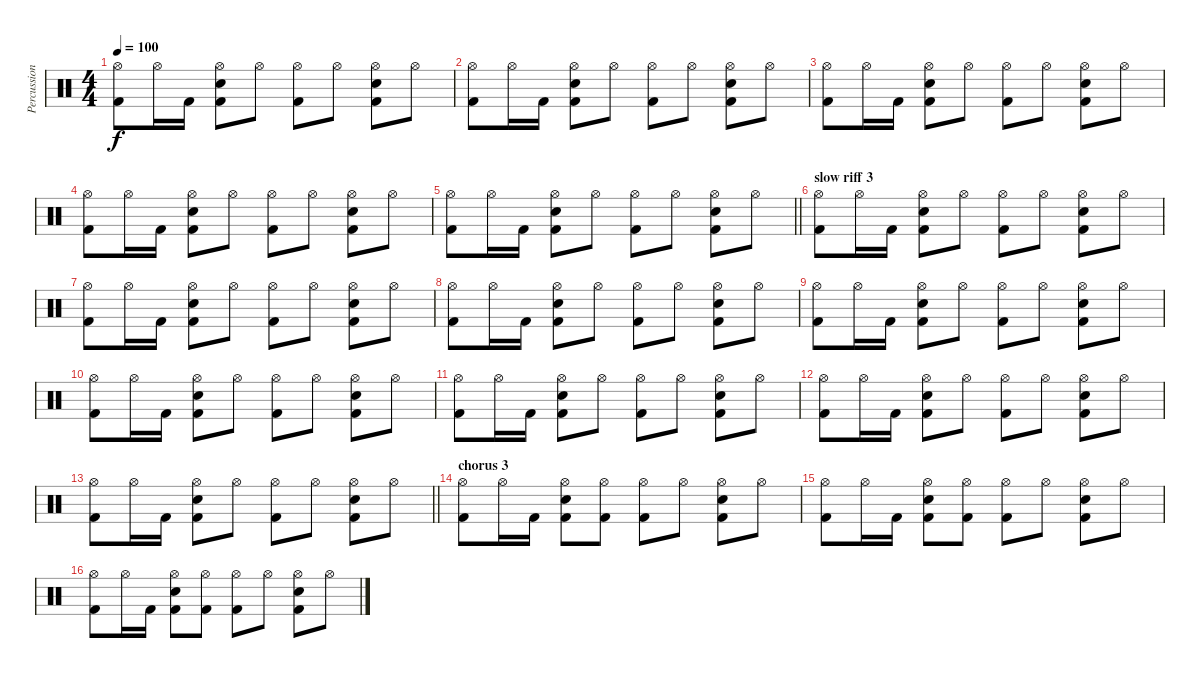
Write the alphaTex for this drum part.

\track ("Percussion" "Percussion") {instrument percussion}
\staff {score}
\articulation defaults
\ts (4 4)
\tempo 100
\clef neutral
\ks c
("Hi-Hat (open)" "Kick (hit) 2").8{dy f} "Hi-Hat (open)".16 "Kick (hit) 2".16 ("Hi-Hat (open)" "Electric Snare (hit)" "Kick (hit) 2").8 "Hi-Hat (open)".8 ("Hi-Hat (open)" "Kick (hit) 2").8 "Hi-Hat (open)".8 ("Hi-Hat (open)" "Electric Snare (hit)" "Kick (hit) 2").8 "Hi-Hat (open)".8 |
("Hi-Hat (open)" "Kick (hit) 2").8 "Hi-Hat (open)".16 "Kick (hit) 2".16 ("Hi-Hat (open)" "Electric Snare (hit)" "Kick (hit) 2").8 "Hi-Hat (open)".8 ("Hi-Hat (open)" "Kick (hit) 2").8 "Hi-Hat (open)".8 ("Hi-Hat (open)" "Electric Snare (hit)" "Kick (hit) 2").8 "Hi-Hat (open)".8 |
("Hi-Hat (open)" "Kick (hit) 2").8 "Hi-Hat (open)".16 "Kick (hit) 2".16 ("Hi-Hat (open)" "Electric Snare (hit)" "Kick (hit) 2").8 "Hi-Hat (open)".8 ("Hi-Hat (open)" "Kick (hit) 2").8 "Hi-Hat (open)".8 ("Hi-Hat (open)" "Electric Snare (hit)" "Kick (hit) 2").8 "Hi-Hat (open)".8 |
("Hi-Hat (open)" "Kick (hit) 2").8 "Hi-Hat (open)".16 "Kick (hit) 2".16 ("Hi-Hat (open)" "Electric Snare (hit)" "Kick (hit) 2").8 "Hi-Hat (open)".8 ("Hi-Hat (open)" "Kick (hit) 2").8 "Hi-Hat (open)".8 ("Hi-Hat (open)" "Electric Snare (hit)" "Kick (hit) 2").8 "Hi-Hat (open)".8 |
\barLineRight lightlight
("Hi-Hat (open)" "Kick (hit) 2").8 "Hi-Hat (open)".16 "Kick (hit) 2".16 ("Hi-Hat (open)" "Electric Snare (hit)" "Kick (hit) 2").8 "Hi-Hat (open)".8 ("Hi-Hat (open)" "Kick (hit) 2").8 "Hi-Hat (open)".8 ("Hi-Hat (open)" "Electric Snare (hit)" "Kick (hit) 2").8 "Hi-Hat (open)".8 |
\section ("" "slow riff 3")
("Hi-Hat (open)" "Kick (hit) 2").8 "Hi-Hat (open)".16 "Kick (hit) 2".16 ("Hi-Hat (open)" "Electric Snare (hit)" "Kick (hit) 2").8 "Hi-Hat (open)".8 ("Hi-Hat (open)" "Kick (hit) 2").8 "Hi-Hat (open)".8 ("Hi-Hat (open)" "Electric Snare (hit)" "Kick (hit) 2").8 "Hi-Hat (open)".8 |
("Hi-Hat (open)" "Kick (hit) 2").8 "Hi-Hat (open)".16 "Kick (hit) 2".16 ("Hi-Hat (open)" "Electric Snare (hit)" "Kick (hit) 2").8 "Hi-Hat (open)".8 ("Hi-Hat (open)" "Kick (hit) 2").8 "Hi-Hat (open)".8 ("Hi-Hat (open)" "Electric Snare (hit)" "Kick (hit) 2").8 "Hi-Hat (open)".8 |
("Hi-Hat (open)" "Kick (hit) 2").8 "Hi-Hat (open)".16 "Kick (hit) 2".16 ("Hi-Hat (open)" "Electric Snare (hit)" "Kick (hit) 2").8 "Hi-Hat (open)".8 ("Hi-Hat (open)" "Kick (hit) 2").8 "Hi-Hat (open)".8 ("Hi-Hat (open)" "Electric Snare (hit)" "Kick (hit) 2").8 "Hi-Hat (open)".8 |
("Hi-Hat (open)" "Kick (hit) 2").8 "Hi-Hat (open)".16 "Kick (hit) 2".16 ("Hi-Hat (open)" "Electric Snare (hit)" "Kick (hit) 2").8 "Hi-Hat (open)".8 ("Hi-Hat (open)" "Kick (hit) 2").8 "Hi-Hat (open)".8 ("Hi-Hat (open)" "Electric Snare (hit)" "Kick (hit) 2").8 "Hi-Hat (open)".8 |
("Hi-Hat (open)" "Kick (hit) 2").8 "Hi-Hat (open)".16 "Kick (hit) 2".16 ("Hi-Hat (open)" "Electric Snare (hit)" "Kick (hit) 2").8 "Hi-Hat (open)".8 ("Hi-Hat (open)" "Kick (hit) 2").8 "Hi-Hat (open)".8 ("Hi-Hat (open)" "Electric Snare (hit)" "Kick (hit) 2").8 "Hi-Hat (open)".8 |
("Hi-Hat (open)" "Kick (hit) 2").8 "Hi-Hat (open)".16 "Kick (hit) 2".16 ("Hi-Hat (open)" "Electric Snare (hit)" "Kick (hit) 2").8 "Hi-Hat (open)".8 ("Hi-Hat (open)" "Kick (hit) 2").8 "Hi-Hat (open)".8 ("Hi-Hat (open)" "Electric Snare (hit)" "Kick (hit) 2").8 "Hi-Hat (open)".8 |
("Hi-Hat (open)" "Kick (hit) 2").8 "Hi-Hat (open)".16 "Kick (hit) 2".16 ("Hi-Hat (open)" "Electric Snare (hit)" "Kick (hit) 2").8 "Hi-Hat (open)".8 ("Hi-Hat (open)" "Kick (hit) 2").8 "Hi-Hat (open)".8 ("Hi-Hat (open)" "Electric Snare (hit)" "Kick (hit) 2").8 "Hi-Hat (open)".8 |
\barLineRight lightlight
("Hi-Hat (open)" "Kick (hit) 2").8 "Hi-Hat (open)".16 "Kick (hit) 2".16 ("Hi-Hat (open)" "Electric Snare (hit)" "Kick (hit) 2").8 "Hi-Hat (open)".8 ("Hi-Hat (open)" "Kick (hit) 2").8 "Hi-Hat (open)".8 ("Hi-Hat (open)" "Electric Snare (hit)" "Kick (hit) 2").8 "Hi-Hat (open)".8 |
\section ("" "chorus 3")
("Hi-Hat (open)" "Kick (hit) 2").8 "Hi-Hat (open)".16 "Kick (hit) 2".16 ("Hi-Hat (open)" "Electric Snare (hit)" "Kick (hit) 2").8 ("Hi-Hat (open)" "Kick (hit) 2").8 ("Hi-Hat (open)" "Kick (hit) 2").8 "Hi-Hat (open)".8 ("Hi-Hat (open)" "Electric Snare (hit)" "Kick (hit) 2").8 "Hi-Hat (open)".8 |
("Hi-Hat (open)" "Kick (hit) 2").8 "Hi-Hat (open)".16 "Kick (hit) 2".16 ("Hi-Hat (open)" "Electric Snare (hit)" "Kick (hit) 2").8 ("Hi-Hat (open)" "Kick (hit) 2").8 ("Hi-Hat (open)" "Kick (hit) 2").8 "Hi-Hat (open)".8 ("Hi-Hat (open)" "Electric Snare (hit)" "Kick (hit) 2").8 "Hi-Hat (open)".8 |
("Hi-Hat (open)" "Kick (hit) 2").8 "Hi-Hat (open)".16 "Kick (hit) 2".16 ("Hi-Hat (open)" "Electric Snare (hit)" "Kick (hit) 2").8 ("Hi-Hat (open)" "Kick (hit) 2").8 ("Hi-Hat (open)" "Kick (hit) 2").8 "Hi-Hat (open)".8 ("Hi-Hat (open)" "Electric Snare (hit)" "Kick (hit) 2").8 "Hi-Hat (open)".8
